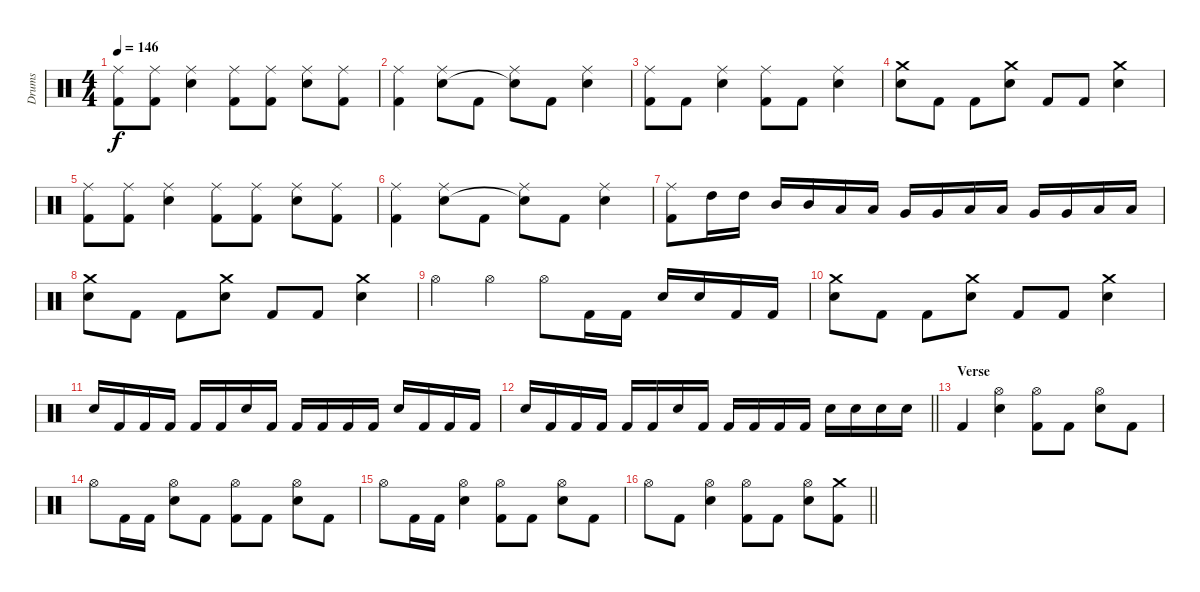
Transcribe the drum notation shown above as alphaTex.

\track ("Drums" "Drums") {instrument percussion}
\staff {score}
\articulation defaults
\ts (4 4)
\tempo 146
\clef neutral
\ks c
("Ride (middle)" "Kick (hit) 2").8{dy f} ("Ride (middle)" "Kick (hit) 2").8 ("Ride (middle)" "Electric Snare (hit)").4 ("Ride (middle)" "Kick (hit) 2").8 ("Ride (middle)" "Kick (hit) 2").8 ("Ride (middle)" "Electric Snare (hit)").8 ("Ride (middle)" "Kick (hit) 2").8 |
("Ride (middle)" "Kick (hit) 2").4 ("Ride (middle)" "Electric Snare (hit)").8 "Kick (hit) 2".8 ("Ride (middle)" "Snare (hit)"{t}).8 "Kick (hit) 2".8 ("Ride (middle)" "Electric Snare (hit)").4 |
("Ride (middle)" "Kick (hit) 2").8 "Kick (hit) 2".8 ("Ride (middle)" "Electric Snare (hit)").4 ("Ride (middle)" "Kick (hit) 2").8 "Kick (hit) 2".8 ("Ride (middle)" "Electric Snare (hit)").4 |
("Crash medium (hit)" "Electric Snare (hit)").8 "Kick (hit) 2".8 "Kick (hit) 2".8 ("Crash medium (hit)" "Electric Snare (hit)").8 "Kick (hit) 2".8 "Kick (hit) 2".8 ("Crash medium (hit)" "Electric Snare (hit)").4 |
("Ride (middle)" "Kick (hit) 2").8 ("Ride (middle)" "Kick (hit) 2").8 ("Ride (middle)" "Electric Snare (hit)").4 ("Ride (middle)" "Kick (hit) 2").8 ("Ride (middle)" "Kick (hit) 2").8 ("Ride (middle)" "Electric Snare (hit)").8 ("Ride (middle)" "Kick (hit) 2").8 |
("Ride (middle)" "Kick (hit) 2").4 ("Ride (middle)" "Electric Snare (hit)").8 "Kick (hit) 2".8 ("Ride (middle)" "Snare (hit)"{t}).8 "Kick (hit) 2".8 ("Ride (middle)" "Electric Snare (hit)").4 |
("Ride (middle)" "Kick (hit) 2").8 "High Tom (hit)".16 "High Tom (hit)".16 "Mid Tom (hit)".16 "Mid Tom (hit)".16 "Low Tom (hit)".16 "Low Tom (hit)".16 "Very Low Tom (hit)".16 "Very Low Tom (hit)".16 "Low Floor Tom (hit)".16 "Low Floor Tom (hit)".16 "Very Low Tom (hit)".16 "Very Low Tom (hit)".16 "Low Tom (hit)".16 "Low Tom (hit)".16 |
("Crash medium (hit)" "Electric Snare (hit)").8 "Kick (hit) 2".8 "Kick (hit) 2".8 ("Crash medium (hit)" "Electric Snare (hit)").8 "Kick (hit) 2".8 "Kick (hit) 2".8 ("Crash medium (hit)" "Electric Snare (hit)").4 |
"Hi-Hat (open)".4 "Hi-Hat (open)".4 "Hi-Hat (open)".8 "Kick (hit) 2".16 "Kick (hit) 2".16 "Electric Snare (hit)".16 "Electric Snare (hit)".16 "Kick (hit) 2".16 "Kick (hit) 2".16 |
("Crash medium (hit)" "Electric Snare (hit)").8 "Kick (hit) 2".8 "Kick (hit) 2".8 ("Crash medium (hit)" "Electric Snare (hit)").8 "Kick (hit) 2".8 "Kick (hit) 2".8 ("Crash medium (hit)" "Electric Snare (hit)").4 |
"Electric Snare (hit)".16 "Kick (hit) 2".16 "Kick (hit) 2".16 "Kick (hit) 2".16 "Kick (hit) 2".16 "Kick (hit) 2".16 "Electric Snare (hit)".16 "Kick (hit) 2".16 "Kick (hit) 2".16 "Kick (hit) 2".16 "Kick (hit) 2".16 "Kick (hit) 2".16 "Electric Snare (hit)".16 "Kick (hit) 2".16 "Kick (hit) 2".16 "Kick (hit) 2".16 |
\barLineRight lightlight "Electric Snare (hit)".16 "Kick (hit) 2".16 "Kick (hit) 2".16 "Kick (hit) 2".16 "Kick (hit) 2".16 "Kick (hit) 2".16 "Electric Snare (hit)".16 "Kick (hit) 2".16 "Kick (hit) 2".16 "Kick (hit) 2".16 "Kick (hit) 2".16 "Kick (hit) 2".16 "Electric Snare (hit)".16 "Electric Snare (hit)".16 "Electric Snare (hit)".16 "Electric Snare (hit)".16
|
\section ("" "Verse")
"Kick (hit) 2".4 ("Hi-Hat (open)" "Electric Snare (hit)").4 ("Hi-Hat (open)" "Kick (hit) 2").8 "Kick (hit) 2".8 ("Hi-Hat (open)" "Electric Snare (hit)").8 "Kick (hit) 2".8 |
"Hi-Hat (open)".8 "Kick (hit) 2".16 "Kick (hit) 2".16 ("Hi-Hat (open)" "Electric Snare (hit)").8 "Kick (hit) 2".8 ("Hi-Hat (open)" "Kick (hit) 2").8 "Kick (hit) 2".8 ("Hi-Hat (open)" "Electric Snare (hit)").8 "Kick (hit) 2".8 |
"Hi-Hat (open)".8 "Kick (hit) 2".16 "Kick (hit) 2".16 ("Hi-Hat (open)" "Electric Snare (hit)").4 ("Hi-Hat (open)" "Kick (hit) 2").8 "Kick (hit) 2".8 ("Hi-Hat (open)" "Electric Snare (hit)").8 "Kick (hit) 2".8 |
\barLineRight lightlight "Hi-Hat (open)".8 "Kick (hit) 2".8
("Hi-Hat (open)" "Electric Snare (hit)").4 ("Hi-Hat (open)" "Kick (hit) 2").8 "Kick (hit) 2".8 ("Hi-Hat (open)" "Electric Snare (hit)").8 ("Crash medium (hit)" "Kick (hit) 2").8
